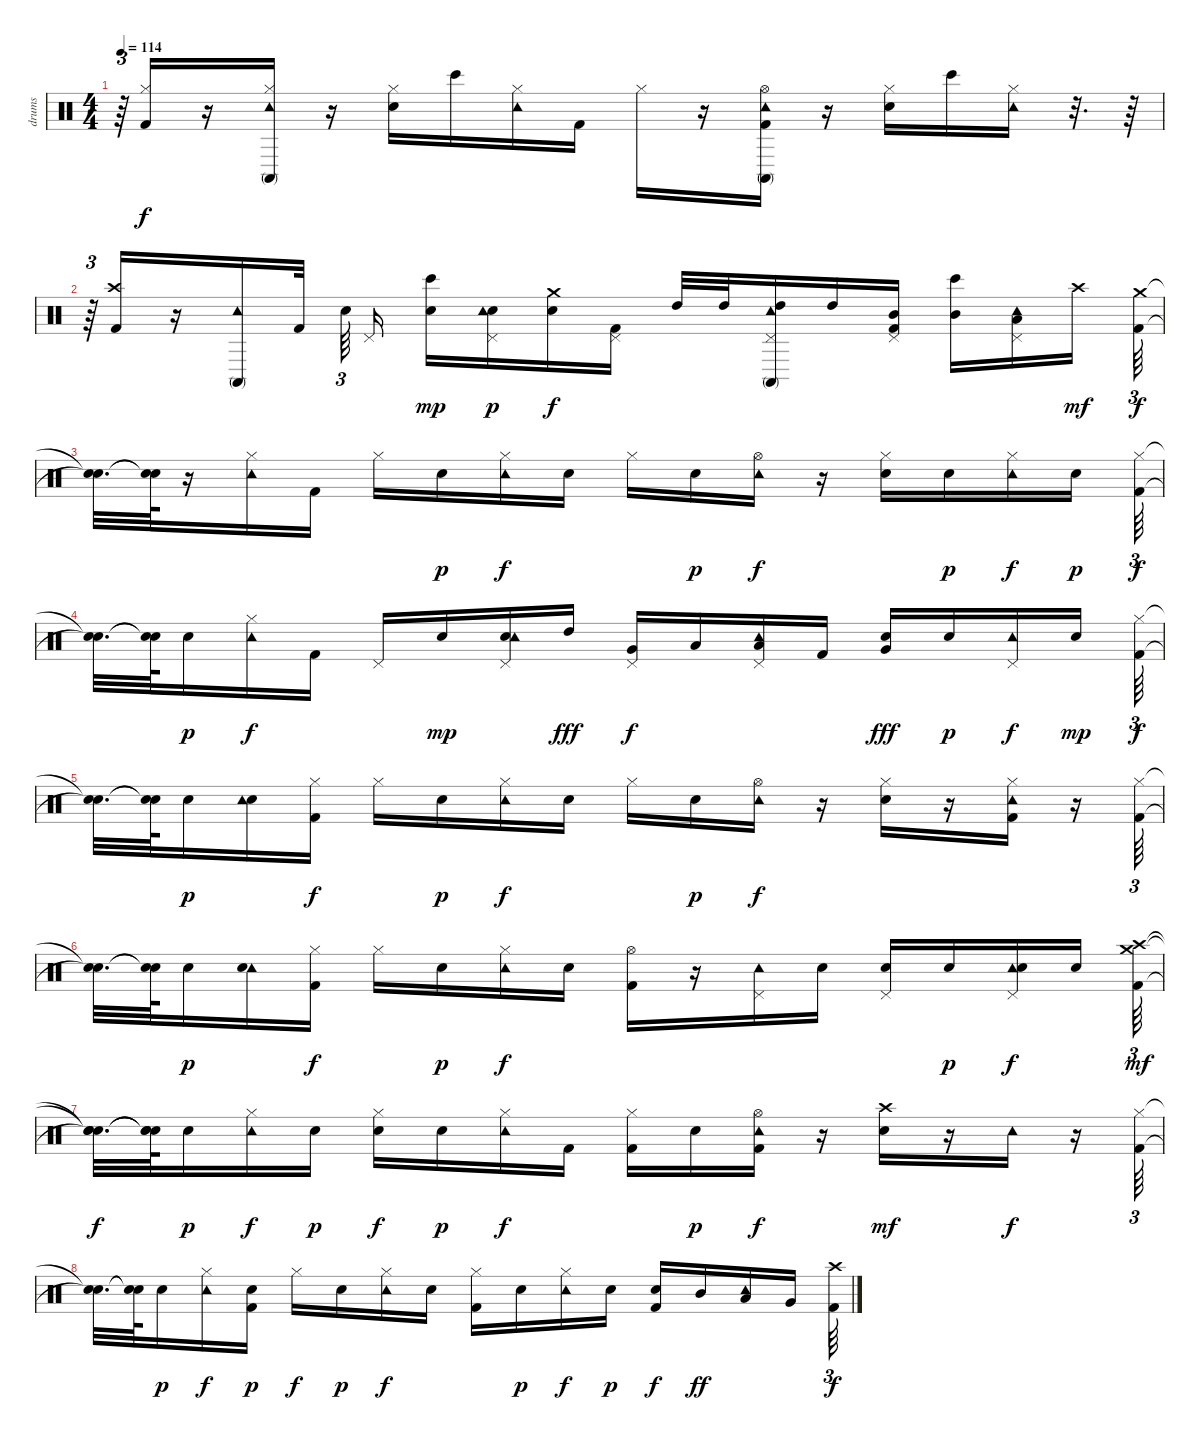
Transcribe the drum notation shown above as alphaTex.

\track ("drums" "drums") {instrument percussion}
\staff {score}
\articulation defaults
\ts (4 4)
\tempo 114
\clef neutral
\ks c
r.64{tu (3 2) dy f} ("Hi-Hat (closed)" "Kick (hit) 2").16 r.16 ("Tambourine (hit)" "Conga high (mute)" "Hi-Hat (closed)").16 r.16 ("Hi-Hat (closed)" "Electric Snare (hit)").16 "Bongo High (hit)".16 ("Tambourine (hit)" "Hi-Hat (closed)").16 "Kick (hit) 2".16 "Hi-Hat (closed)".16 r.16 ("Tambourine (hit)" "Conga high (mute)" "Kick (hit) 2" "Hi-Hat (open)").16 r.16 ("Electric Snare (hit)" "Hi-Hat (closed)").16 "Bongo High (hit)".16 ("Tambourine (hit)" "Hi-Hat (closed)").16 r.32{d} r.64 |
r.64{tu (3 2)} ("Crash high (hit)" "Kick (hit) 2").16 r.16 ("Tambourine (hit)" "Conga high (mute)").16 "Kick (hit) 2".32 "Electric Snare (hit)".64{tu (3 2)} "Pedal Hi-Hat (hit)".16 ("Electric Snare (hit)" "Bongo High (hit)").16{dy mp} ("Electric Snare (hit)" "Tambourine (hit)" "Pedal Hi-Hat (hit)").16{dy p} ("Crash medium (hit)" "Electric Snare (hit)").16{dy f} ("Kick (hit) 2" "Pedal Hi-Hat (hit)").16 "High Tom (hit)".32 "High Tom (hit)".32 ("Tambourine (hit)" "Conga high (mute)" "High Tom (hit)" "Pedal Hi-Hat (hit)").16 "High Tom (hit)".16 ("Mid Tom (hit)" "Kick (hit) 2" "Pedal Hi-Hat (hit)").16 ("Bongo High (hit)" "Mid Tom (hit)").16 ("Tambourine (hit)" "Low Tom (hit)" "Pedal Hi-Hat (hit)").16 "Crash high (hit)".16{dy mf} ("Kick (hit) 2" "Crash medium (hit)").64{tu (3 2) dy f} |
("Snare (hit)"{t} "Snare (hit)"{t}).32{d} ("Snare (hit)"{t} "Snare (hit)"{t}).64 r.16 ("Tambourine (hit)" "Hi-Hat (closed)").16 "Kick (hit) 2".16 "Hi-Hat (closed)".16 "Electric Snare (hit)".16{dy p} ("Tambourine (hit)" "Hi-Hat (closed)").16{dy f} "Electric Snare (hit)".16 "Hi-Hat (closed)".16 "Electric Snare (hit)".16{dy p} ("Tambourine (hit)" "Hi-Hat (open)").16{dy f} r.16 ("Electric Snare (hit)" "Hi-Hat (closed)").16 "Electric Snare (hit)".16{dy p} ("Tambourine (hit)" "Hi-Hat (closed)").16{dy f} "Electric Snare (hit)".16{dy p} ("Hi-Hat (closed)" "Kick (hit) 2").64{tu (3 2) dy f} |
("Snare (hit)"{t} "Snare (hit)"{t}).32{d} ("Snare (hit)"{t} "Snare (hit)"{t}).64 "Electric Snare (hit)".16{dy p} ("Tambourine (hit)" "Hi-Hat (closed)").16{dy f} "Kick (hit) 2".16 "Pedal Hi-Hat (hit)".16 "Electric Snare (hit)".16{dy mp} ("Pedal Hi-Hat (hit)" "Electric Snare (hit)" "Tambourine (hit)").16 "High Tom (hit)".16{dy fff} ("Pedal Hi-Hat (hit)" "Very Low Tom (hit)").16{dy f} "Low Tom (hit)".16 ("Pedal Hi-Hat (hit)" "Tambourine (hit)" "Low Tom (hit)").16 "Kick (hit) 2".16 ("Very Low Tom (hit)" "Electric Snare (hit)").16{dy fff} "Electric Snare (hit)".16{dy p} ("Pedal Hi-Hat (hit)" "Tambourine (hit)").16{dy f} "Electric Snare (hit)".16{dy mp} ("Hi-Hat (closed)" "Kick (hit) 2").64{tu (3 2) dy f} |
("Snare (hit)"{t} "Snare (hit)"{t}).32{d} ("Snare (hit)"{t} "Snare (hit)"{t}).64 "Electric Snare (hit)".16{dy p} ("Electric Snare (hit)" "Tambourine (hit)").16 ("Kick (hit) 2" "Hi-Hat (closed)").16{dy f} "Hi-Hat (closed)".16 "Electric Snare (hit)".16{dy p} ("Hi-Hat (closed)" "Tambourine (hit)").16{dy f} "Electric Snare (hit)".16 "Hi-Hat (closed)".16 "Electric Snare (hit)".16{dy p} ("Hi-Hat (open)" "Tambourine (hit)").16{dy f} r.16 ("Electric Snare (hit)" "Hi-Hat (closed)").16 r.16 ("Kick (hit) 2" "Hi-Hat (closed)" "Tambourine (hit)").16 r.16 ("Hi-Hat (closed)" "Kick (hit) 2").64{tu (3 2)} |
("Snare (hit)"{t} "Snare (hit)"{t}).32{d} ("Snare (hit)"{t} "Snare (hit)"{t}).64 "Electric Snare (hit)".16{dy p} ("Tambourine (hit)" "Electric Snare (hit)").16 ("Hi-Hat (closed)" "Kick (hit) 2").16{dy f} "Hi-Hat (closed)".16 "Electric Snare (hit)".16{dy p} ("Tambourine (hit)" "Hi-Hat (closed)").16{dy f} "Electric Snare (hit)".16 ("Hi-Hat (open)" "Kick (hit) 2").16 r.16 ("Tambourine (hit)" "Pedal Hi-Hat (hit)").16 "Electric Snare (hit)".16 ("Electric Snare (hit)" "Pedal Hi-Hat (hit)").16 "Electric Snare (hit)".16{dy p} ("Tambourine (hit)" "Electric Snare (hit)" "Pedal Hi-Hat (hit)").16{dy f} "Electric Snare (hit)".16 ("Crash medium (hit)" "Crash high (hit)" "Kick (hit) 2").64{tu (3 2) dy mf} |
("Snare (hit)"{t} "Snare (hit)"{t} "Snare (hit)"{t}).32{d dy f} ("Snare (hit)"{t} "Snare (hit)"{t} "Snare (hit)"{t}).64 "Electric Snare (hit)".16{dy p} ("Tambourine (hit)" "Hi-Hat (closed)").16{dy f} "Electric Snare (hit)".16{dy p} ("Electric Snare (hit)" "Hi-Hat (closed)").16{dy f} "Electric Snare (hit)".16{dy p} ("Tambourine (hit)" "Hi-Hat (closed)").16{dy f} "Kick (hit) 2".16 ("Hi-Hat (closed)" "Kick (hit) 2").16 "Electric Snare (hit)".16{dy p} ("Kick (hit) 2" "Tambourine (hit)" "Hi-Hat (open)").16{dy f} r.16 ("Crash high (hit)" "Electric Snare (hit)").16{dy mf} r.16 "Tambourine (hit)".16{dy f} r.16 ("Hi-Hat (closed)" "Kick (hit) 2").64{tu (3 2)} |
("Snare (hit)"{t} "Snare (hit)"{t}).32{d} ("Snare (hit)"{t} "Snare (hit)"{t}).64 "Electric Snare (hit)".16{dy p} ("Hi-Hat (closed)" "Tambourine (hit)").16{dy f} ("Electric Snare (hit)" "Kick (hit) 2").16{dy p} "Hi-Hat (closed)".16{dy f} "Electric Snare (hit)".16{dy p} ("Hi-Hat (closed)" "Tambourine (hit)").16{dy f} "Electric Snare (hit)".16 ("Hi-Hat (closed)" "Kick (hit) 2").16 "Electric Snare (hit)".16{dy p} ("Hi-Hat (closed)" "Tambourine (hit)").16{dy f} "Electric Snare (hit)".16{dy p} ("Kick (hit) 2" "Electric Snare (hit)").16{dy f} "Mid Tom (hit)".16{dy ff} ("Low Tom (hit)" "Tambourine (hit)").16 "Very Low Tom (hit)".16 ("Crash high (hit)" "Kick (hit) 2").64{tu (3 2) dy f}
